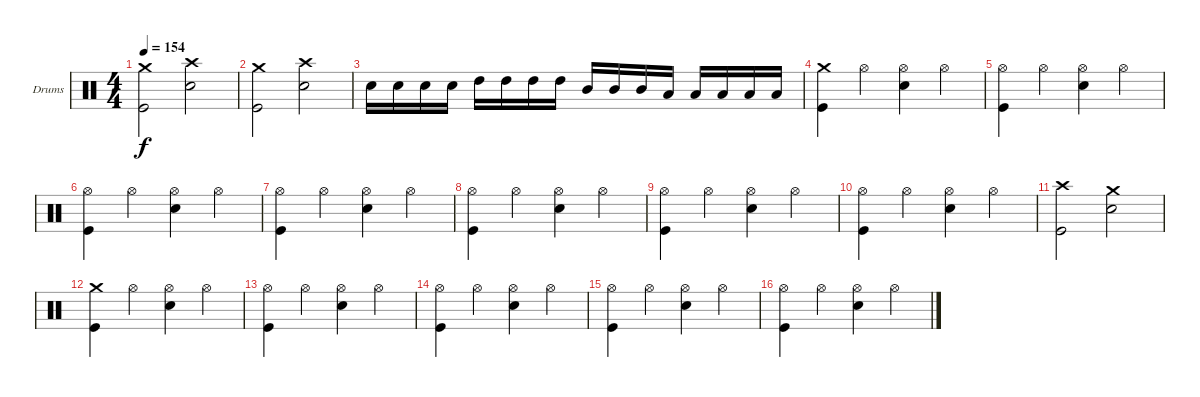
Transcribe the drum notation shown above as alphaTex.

\bracketExtendMode groupsimilarinstruments
\firstSystemTrackNameOrientation horizontal
\otherSystemsTrackNameOrientation horizontal
\track ("Drumkit (Christoph)" "Drums") {instrument percussion}
\staff {score}
\articulation defaults
\ts (4 4)
\tempo 154
\clef neutral
\ks c
("Crash medium (hit)" "Kick (hit)").2{dy f} ("Crash high (hit)" "Snare (hit) 2").2 |
("Crash medium (hit)" "Kick (hit)").2 ("Crash high (hit)" "Snare (hit) 2").2 |
"Snare (hit) 2".16 "Snare (hit) 2".16 "Snare (hit) 2".16 "Snare (hit) 2".16 "High Tom (hit)".16 "High Tom (hit)".16 "High Tom (hit)".16 "High Tom (hit)".16 "Mid Tom (hit)".16 "Mid Tom (hit)".16 "Mid Tom (hit)".16 "Low Tom (hit)".16 "Low Tom (hit)".16 "Low Tom (hit)".16 "Low Tom (hit)".16 "Low Tom (hit)".16 |
("Crash medium (hit)" "Kick (hit)").4 "Hi-Hat (open)".4 ("Hi-Hat (open)" "Snare (hit) 2").4 "Hi-Hat (open)".4 |
("Hi-Hat (open)" "Kick (hit)").4 "Hi-Hat (open)".4 ("Hi-Hat (open)" "Snare (hit) 2").4 "Hi-Hat (open)".4 |
("Hi-Hat (open)" "Kick (hit)").4 "Hi-Hat (open)".4 ("Hi-Hat (open)" "Snare (hit) 2").4 "Hi-Hat (open)".4 |
("Hi-Hat (open)" "Kick (hit)").4 "Hi-Hat (open)".4 ("Hi-Hat (open)" "Snare (hit) 2").4 "Hi-Hat (open)".4 |
("Hi-Hat (open)" "Kick (hit)").4 "Hi-Hat (open)".4 ("Hi-Hat (open)" "Snare (hit) 2").4 "Hi-Hat (open)".4 |
("Hi-Hat (open)" "Kick (hit)").4 "Hi-Hat (open)".4 ("Hi-Hat (open)" "Snare (hit) 2").4 "Hi-Hat (open)".4 |
("Hi-Hat (open)" "Kick (hit)").4 "Hi-Hat (open)".4 ("Hi-Hat (open)" "Snare (hit) 2").4 "Hi-Hat (open)".4 |
("Crash high (hit)" "Kick (hit)").2 ("Crash medium (hit)" "Snare (hit) 2").2 |
("Crash medium (hit)" "Kick (hit)").4 "Hi-Hat (open)".4 ("Hi-Hat (open)" "Snare (hit) 2").4 "Hi-Hat (open)".4 |
("Hi-Hat (open)" "Kick (hit)").4 "Hi-Hat (open)".4 ("Hi-Hat (open)" "Snare (hit) 2").4 "Hi-Hat (open)".4 |
("Hi-Hat (open)" "Kick (hit)").4 "Hi-Hat (open)".4 ("Hi-Hat (open)" "Snare (hit) 2").4 "Hi-Hat (open)".4 |
("Hi-Hat (open)" "Kick (hit)").4 "Hi-Hat (open)".4 ("Hi-Hat (open)" "Snare (hit) 2").4 "Hi-Hat (open)".4 |
("Hi-Hat (open)" "Kick (hit)").4 "Hi-Hat (open)".4 ("Hi-Hat (open)" "Snare (hit) 2").4 "Hi-Hat (open)".4
